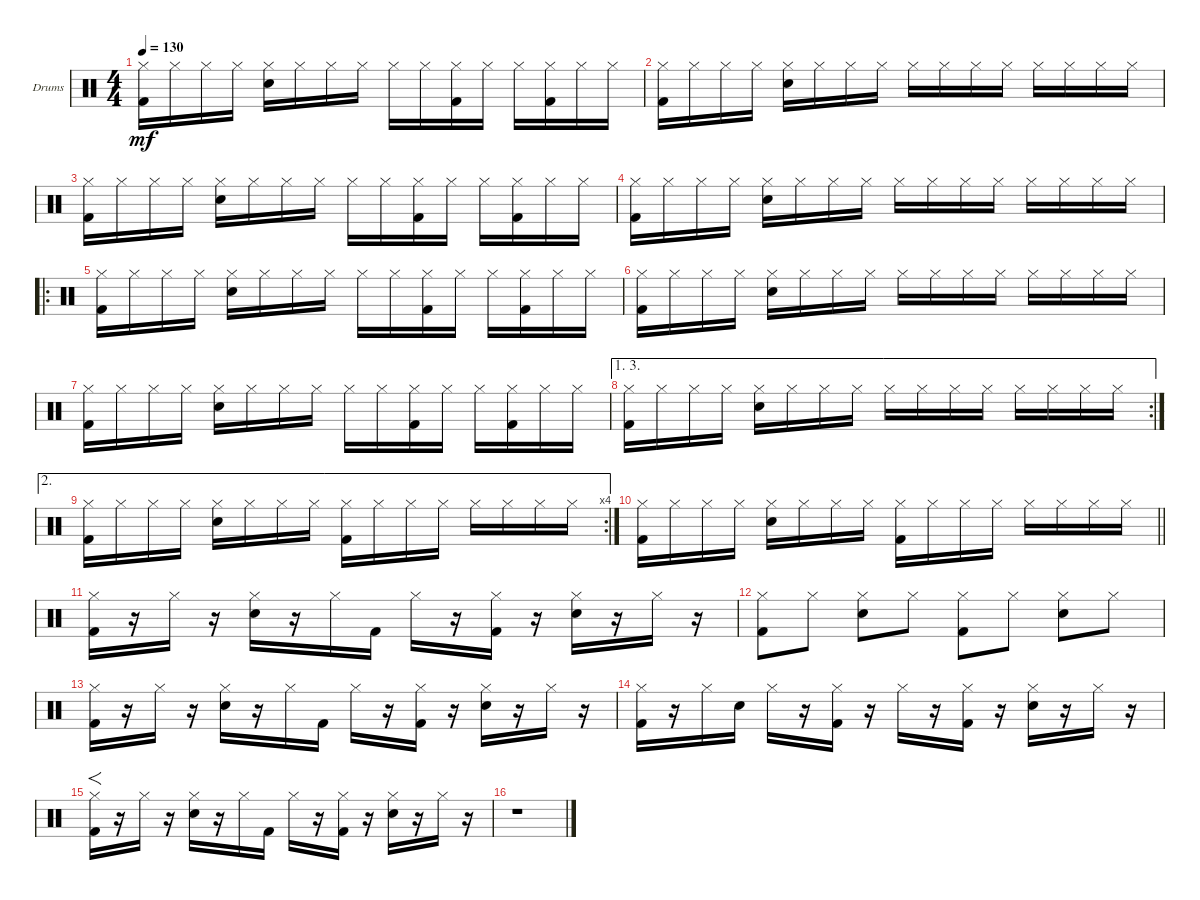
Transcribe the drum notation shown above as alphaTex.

\defaultSystemsLayout 4
\bracketExtendMode nobrackets
\firstSystemTrackNameOrientation horizontal
\otherSystemsTrackNameOrientation horizontal
\track ("Drumkit" "Drums") {instrument percussion}
\staff {score}
\articulation defaults
\ts (4 4)
\tempo 130
\clef neutral
\ks c
("Hi-Hat (closed)" "Kick (hit) 2").16{dy mf} "Hi-Hat (closed)".16 "Hi-Hat (closed)".16 "Hi-Hat (closed)".16 ("Hi-Hat (closed)" "Snare (hit) 2").16 "Hi-Hat (closed)".16 "Hi-Hat (closed)".16 "Hi-Hat (closed)".16 "Hi-Hat (closed)".16 "Hi-Hat (closed)".16 ("Hi-Hat (closed)" "Kick (hit) 2").16 "Hi-Hat (closed)".16 "Hi-Hat (closed)".16 ("Hi-Hat (closed)" "Kick (hit) 2").16 "Hi-Hat (closed)".16 "Hi-Hat (closed)".16 |
("Kick (hit) 2" "Hi-Hat (closed)").16 "Hi-Hat (closed)".16 "Hi-Hat (closed)".16 "Hi-Hat (closed)".16 ("Hi-Hat (closed)" "Snare (hit) 2").16 "Hi-Hat (closed)".16 "Hi-Hat (closed)".16 "Hi-Hat (closed)".16 "Hi-Hat (closed)".16 "Hi-Hat (closed)".16 "Hi-Hat (closed)".16 "Hi-Hat (closed)".16 "Hi-Hat (closed)".16 "Hi-Hat (closed)".16 "Hi-Hat (closed)".16 "Hi-Hat (closed)".16 |
("Hi-Hat (closed)" "Kick (hit) 2").16 "Hi-Hat (closed)".16 "Hi-Hat (closed)".16 "Hi-Hat (closed)".16 ("Hi-Hat (closed)" "Snare (hit) 2").16 "Hi-Hat (closed)".16 "Hi-Hat (closed)".16 "Hi-Hat (closed)".16 "Hi-Hat (closed)".16 "Hi-Hat (closed)".16 ("Hi-Hat (closed)" "Kick (hit) 2").16 "Hi-Hat (closed)".16 "Hi-Hat (closed)".16 ("Hi-Hat (closed)" "Kick (hit) 2").16 "Hi-Hat (closed)".16 "Hi-Hat (closed)".16 |
("Kick (hit) 2" "Hi-Hat (closed)").16 "Hi-Hat (closed)".16 "Hi-Hat (closed)".16 "Hi-Hat (closed)".16 ("Hi-Hat (closed)" "Snare (hit) 2").16 "Hi-Hat (closed)".16 "Hi-Hat (closed)".16 "Hi-Hat (closed)".16 "Hi-Hat (closed)".16 "Hi-Hat (closed)".16 "Hi-Hat (closed)".16 "Hi-Hat (closed)".16 "Hi-Hat (closed)".16 "Hi-Hat (closed)".16 "Hi-Hat (closed)".16 "Hi-Hat (closed)".16 |
\ro
("Hi-Hat (closed)" "Kick (hit) 2").16 "Hi-Hat (closed)".16 "Hi-Hat (closed)".16 "Hi-Hat (closed)".16 ("Hi-Hat (closed)" "Snare (hit) 2").16 "Hi-Hat (closed)".16 "Hi-Hat (closed)".16 "Hi-Hat (closed)".16 "Hi-Hat (closed)".16 "Hi-Hat (closed)".16 ("Hi-Hat (closed)" "Kick (hit) 2").16 "Hi-Hat (closed)".16 "Hi-Hat (closed)".16 ("Hi-Hat (closed)" "Kick (hit) 2").16 "Hi-Hat (closed)".16 "Hi-Hat (closed)".16 |
("Kick (hit) 2" "Hi-Hat (closed)").16 "Hi-Hat (closed)".16 "Hi-Hat (closed)".16 "Hi-Hat (closed)".16 ("Hi-Hat (closed)" "Snare (hit) 2").16 "Hi-Hat (closed)".16 "Hi-Hat (closed)".16 "Hi-Hat (closed)".16 "Hi-Hat (closed)".16 "Hi-Hat (closed)".16 "Hi-Hat (closed)".16 "Hi-Hat (closed)".16 "Hi-Hat (closed)".16 "Hi-Hat (closed)".16 "Hi-Hat (closed)".16 "Hi-Hat (closed)".16 |
("Hi-Hat (closed)" "Kick (hit) 2").16 "Hi-Hat (closed)".16 "Hi-Hat (closed)".16 "Hi-Hat (closed)".16 ("Hi-Hat (closed)" "Snare (hit) 2").16 "Hi-Hat (closed)".16 "Hi-Hat (closed)".16 "Hi-Hat (closed)".16 "Hi-Hat (closed)".16 "Hi-Hat (closed)".16 ("Hi-Hat (closed)" "Kick (hit) 2").16 "Hi-Hat (closed)".16 "Hi-Hat (closed)".16 ("Hi-Hat (closed)" "Kick (hit) 2").16 "Hi-Hat (closed)".16 "Hi-Hat (closed)".16 |
\ae (1 3)
\rc 2
("Kick (hit) 2" "Hi-Hat (closed)").16 "Hi-Hat (closed)".16 "Hi-Hat (closed)".16 "Hi-Hat (closed)".16 ("Hi-Hat (closed)" "Snare (hit) 2").16 "Hi-Hat (closed)".16 "Hi-Hat (closed)".16 "Hi-Hat (closed)".16 "Hi-Hat (closed)".16 "Hi-Hat (closed)".16 "Hi-Hat (closed)".16 "Hi-Hat (closed)".16 "Hi-Hat (closed)".16 "Hi-Hat (closed)".16 "Hi-Hat (closed)".16 "Hi-Hat (closed)".16 |
\ae 2
\rc 4
("Kick (hit) 2" "Hi-Hat (closed)").16 "Hi-Hat (closed)".16 "Hi-Hat (closed)".16 "Hi-Hat (closed)".16 ("Hi-Hat (closed)" "Snare (hit) 2").16 "Hi-Hat (closed)".16 "Hi-Hat (closed)".16 "Hi-Hat (closed)".16 ("Hi-Hat (closed)" "Kick (hit) 2").16 "Hi-Hat (closed)".16 "Hi-Hat (closed)".16 "Hi-Hat (closed)".16 "Hi-Hat (closed)".16 "Hi-Hat (closed)".16 "Hi-Hat (closed)".16 "Hi-Hat (closed)".16 |
\barLineRight lightlight
("Kick (hit) 2" "Hi-Hat (closed)").16 "Hi-Hat (closed)".16 "Hi-Hat (closed)".16 "Hi-Hat (closed)".16 ("Hi-Hat (closed)" "Snare (hit) 2").16 "Hi-Hat (closed)".16 "Hi-Hat (closed)".16 "Hi-Hat (closed)".16 ("Hi-Hat (closed)" "Kick (hit) 2").16 "Hi-Hat (closed)".16 "Hi-Hat (closed)".16 "Hi-Hat (closed)".16 "Hi-Hat (closed)".16 "Hi-Hat (closed)".16 "Hi-Hat (closed)".16 "Hi-Hat (closed)".16 |
("Hi-Hat (closed)" "Kick (hit) 2").16 r.16 "Hi-Hat (closed)".16 r.16 ("Hi-Hat (closed)" "Snare (hit) 2").16 r.16 "Hi-Hat (closed)".16 "Kick (hit) 2".16 "Hi-Hat (closed)".16 r.16 ("Hi-Hat (closed)" "Kick (hit) 2").16 r.16 ("Hi-Hat (closed)" "Snare (hit) 2").16 r.16 "Hi-Hat (closed)".16 r.16 |
("Hi-Hat (closed)" "Kick (hit) 2").8 "Hi-Hat (closed)".8 ("Hi-Hat (closed)" "Snare (hit) 2").8 "Hi-Hat (closed)".8 ("Hi-Hat (closed)" "Kick (hit) 2").8 "Hi-Hat (closed)".8 ("Hi-Hat (closed)" "Snare (hit) 2").8 "Hi-Hat (closed)".8 |
("Hi-Hat (closed)" "Kick (hit) 2").16 r.16 "Hi-Hat (closed)".16 r.16 ("Hi-Hat (closed)" "Snare (hit) 2").16 r.16 "Hi-Hat (closed)".16 "Kick (hit) 2".16 "Hi-Hat (closed)".16 r.16 ("Hi-Hat (closed)" "Kick (hit) 2").16 r.16 ("Hi-Hat (closed)" "Snare (hit) 2").16 r.16 "Hi-Hat (closed)".16 r.16 |
("Hi-Hat (closed)" "Kick (hit) 2").16 r.16 "Hi-Hat (closed)".16 "Snare (hit) 2".16 "Hi-Hat (closed)".16 r.16 ("Hi-Hat (closed)" "Kick (hit) 2").16 r.16 "Hi-Hat (closed)".16 r.16 ("Hi-Hat (closed)" "Kick (hit) 2").16 r.16 ("Hi-Hat (closed)" "Snare (hit) 2").16 r.16 "Hi-Hat (closed)".16 r.16 |
("Hi-Hat (closed)" "Kick (hit) 2").16{f} r.16 "Hi-Hat (closed)".16 r.16 ("Hi-Hat (closed)" "Snare (hit) 2").16 r.16 "Hi-Hat (closed)".16 "Kick (hit) 2".16 "Hi-Hat (closed)".16 r.16 ("Hi-Hat (closed)" "Kick (hit) 2").16 r.16 ("Hi-Hat (closed)" "Snare (hit) 2").16 r.16 "Hi-Hat (closed)".16 r.16 |
r.1
